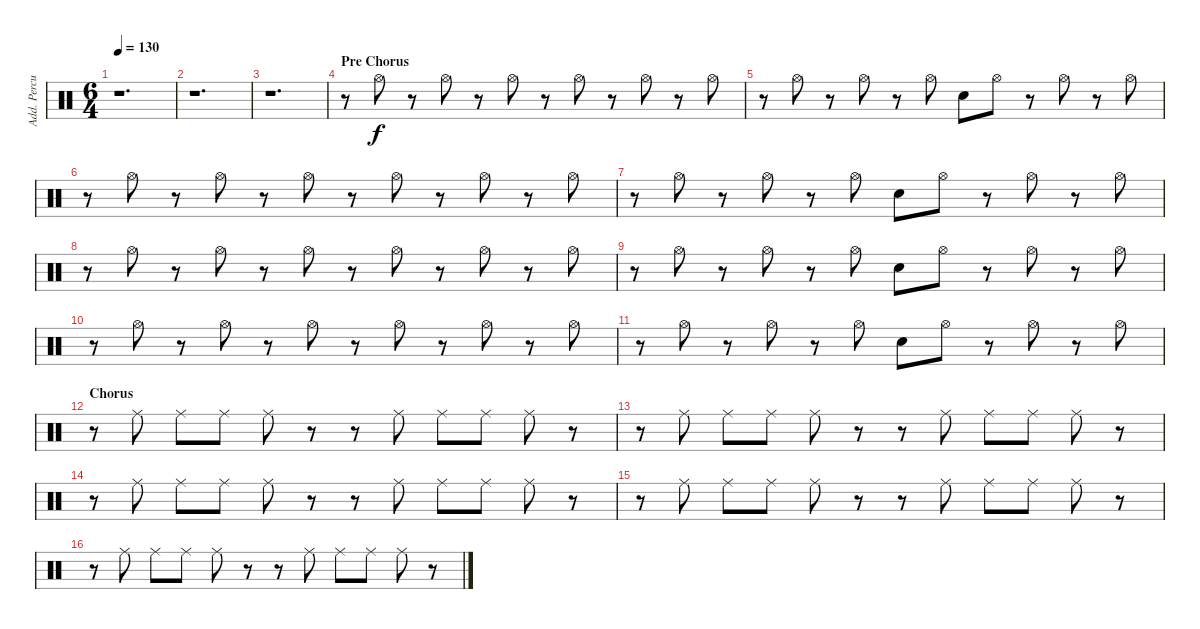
\track ("Add. Percussion" "Add. Percu") {instrument percussion}
\staff {score}
\articulation defaults
\ts (6 4)
\tempo 130
\clef neutral
\ks c
r.1{d dy f} |
r.1{d} |
r.1{d} |
\section ("" "Pre Chorus")
r.8 "Hi-Hat (open)".8 r.8 "Hi-Hat (open)".8 r.8 "Hi-Hat (open)".8 r.8 "Hi-Hat (open)".8 r.8 "Hi-Hat (open)".8 r.8 "Hi-Hat (open)".8 |
r.8 "Hi-Hat (open)".8 r.8 "Hi-Hat (open)".8 r.8 "Hi-Hat (open)".8 "Electric Snare (hit)".8 "Hi-Hat (open)".8 r.8 "Hi-Hat (open)".8 r.8 "Hi-Hat (open)".8 |
r.8 "Hi-Hat (open)".8 r.8 "Hi-Hat (open)".8 r.8 "Hi-Hat (open)".8 r.8 "Hi-Hat (open)".8 r.8 "Hi-Hat (open)".8 r.8 "Hi-Hat (open)".8 |
r.8 "Hi-Hat (open)".8 r.8 "Hi-Hat (open)".8 r.8 "Hi-Hat (open)".8 "Electric Snare (hit)".8 "Hi-Hat (open)".8 r.8 "Hi-Hat (open)".8 r.8 "Hi-Hat (open)".8 |
r.8 "Hi-Hat (open)".8 r.8 "Hi-Hat (open)".8 r.8 "Hi-Hat (open)".8 r.8 "Hi-Hat (open)".8 r.8 "Hi-Hat (open)".8 r.8 "Hi-Hat (open)".8 |
r.8 "Hi-Hat (open)".8 r.8 "Hi-Hat (open)".8 r.8 "Hi-Hat (open)".8 "Electric Snare (hit)".8 "Hi-Hat (open)".8 r.8 "Hi-Hat (open)".8 r.8 "Hi-Hat (open)".8 |
r.8 "Hi-Hat (open)".8 r.8 "Hi-Hat (open)".8 r.8 "Hi-Hat (open)".8 r.8 "Hi-Hat (open)".8 r.8 "Hi-Hat (open)".8 r.8 "Hi-Hat (open)".8 |
r.8 "Hi-Hat (open)".8 r.8 "Hi-Hat (open)".8 r.8 "Hi-Hat (open)".8 "Electric Snare (hit)".8 "Hi-Hat (open)".8 r.8 "Hi-Hat (open)".8 r.8 "Hi-Hat (open)".8 |
\section ("" "Chorus")
r.8 "Ride (middle)".8 "Ride (middle)".8 "Ride (middle)".8 "Ride (middle)".8 r.8 r.8 "Ride (middle)".8 "Ride (middle)".8 "Ride (middle)".8 "Ride (middle)".8 r.8 |
r.8 "Ride (middle)".8 "Ride (middle)".8 "Ride (middle)".8 "Ride (middle)".8 r.8 r.8 "Ride (middle)".8 "Ride (middle)".8 "Ride (middle)".8 "Ride (middle)".8 r.8 |
r.8 "Ride (middle)".8 "Ride (middle)".8 "Ride (middle)".8 "Ride (middle)".8 r.8 r.8 "Ride (middle)".8 "Ride (middle)".8 "Ride (middle)".8 "Ride (middle)".8 r.8 |
r.8 "Ride (middle)".8 "Ride (middle)".8 "Ride (middle)".8 "Ride (middle)".8 r.8 r.8 "Ride (middle)".8 "Ride (middle)".8 "Ride (middle)".8 "Ride (middle)".8 r.8 |
r.8 "Ride (middle)".8 "Ride (middle)".8 "Ride (middle)".8 "Ride (middle)".8 r.8 r.8 "Ride (middle)".8 "Ride (middle)".8 "Ride (middle)".8 "Ride (middle)".8 r.8
